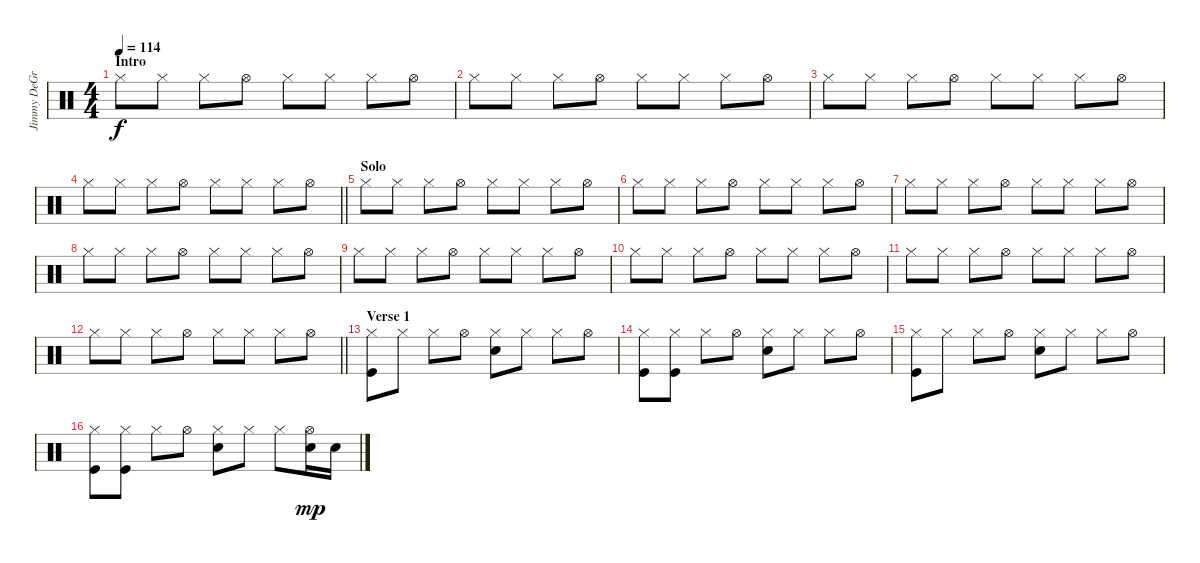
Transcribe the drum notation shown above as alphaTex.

\track ("Jimmy DeGrasso" "Jimmy DeGr") {instrument percussion}
\staff {score}
\articulation defaults
\ts (4 4)
\section ("" "Intro")
\tempo 114
\clef neutral
\ks c "Hi-Hat (closed)".8{dy f volume 7} "Hi-Hat (closed)".8 "Hi-Hat (closed)".8 "Hi-Hat (open)".8 "Hi-Hat (closed)".8 "Hi-Hat (closed)".8 "Hi-Hat (closed)".8 "Hi-Hat (open)".8
|
"Hi-Hat (closed)".8 "Hi-Hat (closed)".8 "Hi-Hat (closed)".8 "Hi-Hat (open)".8 "Hi-Hat (closed)".8 "Hi-Hat (closed)".8 "Hi-Hat (closed)".8 "Hi-Hat (open)".8 |
"Hi-Hat (closed)".8 "Hi-Hat (closed)".8 "Hi-Hat (closed)".8 "Hi-Hat (open)".8 "Hi-Hat (closed)".8 "Hi-Hat (closed)".8 "Hi-Hat (closed)".8 "Hi-Hat (open)".8 |
\barLineRight lightlight "Hi-Hat (closed)".8 "Hi-Hat (closed)".8 "Hi-Hat (closed)".8 "Hi-Hat (open)".8 "Hi-Hat (closed)".8 "Hi-Hat (closed)".8 "Hi-Hat (closed)".8 "Hi-Hat (open)".8
|
\section ("" "Solo")
"Hi-Hat (closed)".8 "Hi-Hat (closed)".8 "Hi-Hat (closed)".8 "Hi-Hat (open)".8 "Hi-Hat (closed)".8 "Hi-Hat (closed)".8 "Hi-Hat (closed)".8 "Hi-Hat (open)".8 |
"Hi-Hat (closed)".8 "Hi-Hat (closed)".8 "Hi-Hat (closed)".8 "Hi-Hat (open)".8 "Hi-Hat (closed)".8 "Hi-Hat (closed)".8 "Hi-Hat (closed)".8 "Hi-Hat (open)".8 |
"Hi-Hat (closed)".8 "Hi-Hat (closed)".8 "Hi-Hat (closed)".8 "Hi-Hat (open)".8 "Hi-Hat (closed)".8 "Hi-Hat (closed)".8 "Hi-Hat (closed)".8 "Hi-Hat (open)".8 |
"Hi-Hat (closed)".8 "Hi-Hat (closed)".8 "Hi-Hat (closed)".8 "Hi-Hat (open)".8 "Hi-Hat (closed)".8 "Hi-Hat (closed)".8 "Hi-Hat (closed)".8 "Hi-Hat (open)".8 |
"Hi-Hat (closed)".8 "Hi-Hat (closed)".8 "Hi-Hat (closed)".8 "Hi-Hat (open)".8 "Hi-Hat (closed)".8 "Hi-Hat (closed)".8 "Hi-Hat (closed)".8 "Hi-Hat (open)".8 |
"Hi-Hat (closed)".8 "Hi-Hat (closed)".8 "Hi-Hat (closed)".8 "Hi-Hat (open)".8 "Hi-Hat (closed)".8 "Hi-Hat (closed)".8 "Hi-Hat (closed)".8 "Hi-Hat (open)".8 |
"Hi-Hat (closed)".8 "Hi-Hat (closed)".8 "Hi-Hat (closed)".8 "Hi-Hat (open)".8 "Hi-Hat (closed)".8 "Hi-Hat (closed)".8 "Hi-Hat (closed)".8 "Hi-Hat (open)".8 |
\barLineRight lightlight "Hi-Hat (closed)".8 "Hi-Hat (closed)".8 "Hi-Hat (closed)".8 "Hi-Hat (open)".8 "Hi-Hat (closed)".8 "Hi-Hat (closed)".8 "Hi-Hat (closed)".8 "Hi-Hat (open)".8
|
\section ("" "Verse 1")
("Hi-Hat (closed)" "Kick (hit)").8{volume 12} "Hi-Hat (closed)".8 "Hi-Hat (closed)".8 "Hi-Hat (open)".8 ("Hi-Hat (closed)" "Snare (hit) 2").8 "Hi-Hat (closed)".8 "Hi-Hat (closed)".8 "Hi-Hat (open)".8 |
("Hi-Hat (closed)" "Kick (hit)").8 ("Hi-Hat (closed)" "Kick (hit)").8 "Hi-Hat (closed)".8 "Hi-Hat (open)".8 ("Hi-Hat (closed)" "Snare (hit) 2").8 "Hi-Hat (closed)".8 "Hi-Hat (closed)".8 "Hi-Hat (open)".8 |
("Hi-Hat (closed)" "Kick (hit)").8 "Hi-Hat (closed)".8 "Hi-Hat (closed)".8 "Hi-Hat (open)".8 ("Hi-Hat (closed)" "Snare (hit) 2").8 "Hi-Hat (closed)".8 "Hi-Hat (closed)".8 "Hi-Hat (open)".8 |
("Hi-Hat (closed)" "Kick (hit)").8 ("Hi-Hat (closed)" "Kick (hit)").8 "Hi-Hat (closed)".8 "Hi-Hat (open)".8 ("Hi-Hat (closed)" "Snare (hit) 2").8 "Hi-Hat (closed)".8 "Hi-Hat (closed)".8 ("Hi-Hat (open)" "Snare (hit) 2").16{dy mp} "Snare (hit) 2".16
